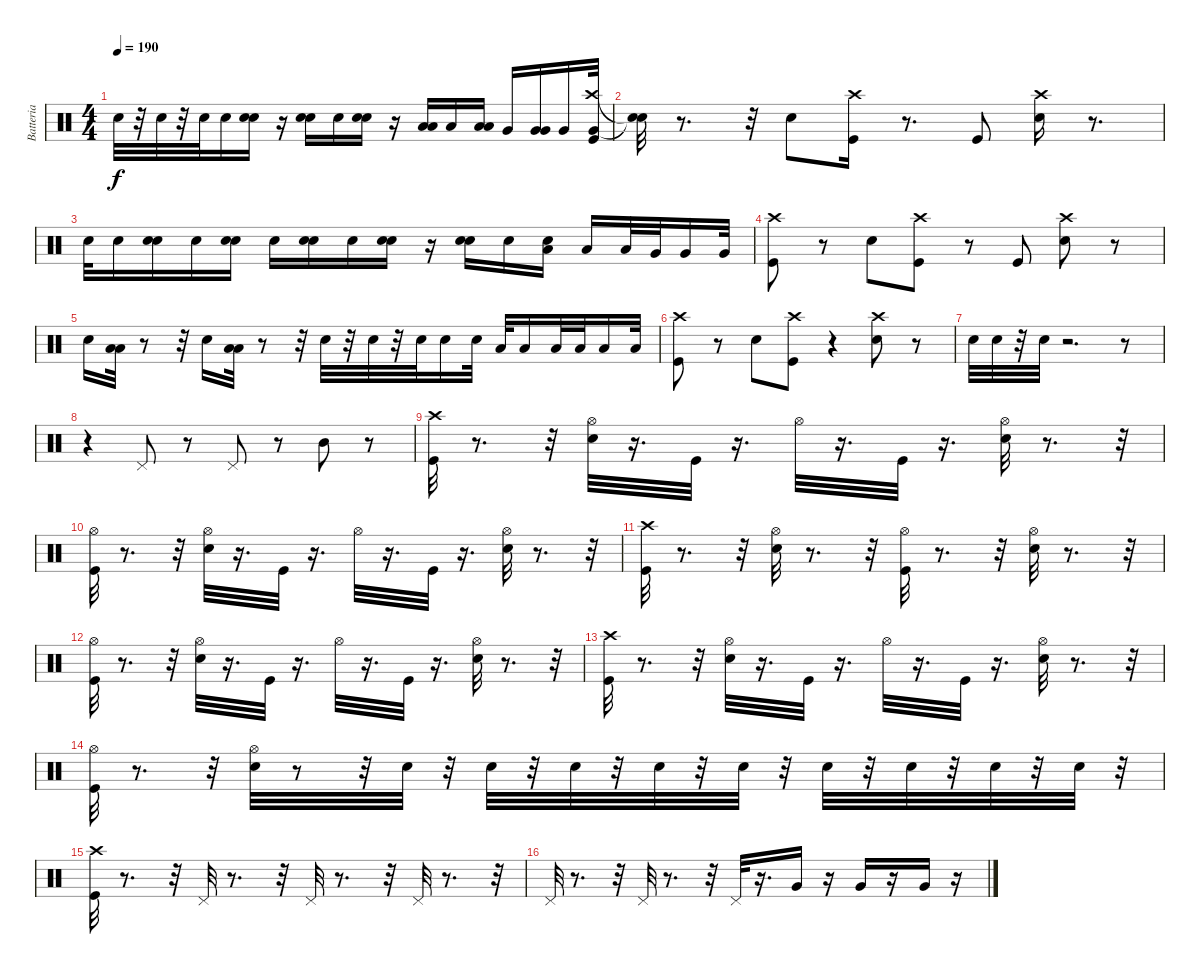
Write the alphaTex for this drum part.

\track ("Batteria" "Batteria") {instrument percussion}
\staff {score}
\articulation defaults
\ts (4 4)
\tempo 190
\clef neutral
\ks c "Snare (hit) 2".32{dy f}
r.32 "Snare (hit) 2".32 r.32 "Snare (hit) 2".32 "Snare (hit) 2".16 ("Snare (hit) 2" "Snare (hit) 2").16 r.16 ("Snare (hit) 2" "Snare (hit) 2").16 "Snare (hit) 2".16 ("Snare (hit) 2" "Snare (hit) 2").16 r.16 ("Low Tom (hit)" "Low Tom (hit)").16 "Low Tom (hit)".16 ("Low Tom (hit)" "Low Tom (hit)").16 "Very Low Tom (hit)".16 ("Very Low Tom (hit)" "Very Low Tom (hit)").16 "Very Low Tom (hit)".16 ("Very Low Tom (hit)" "Crash high (hit)" "Kick (hit)").32 |
("Snare (hit)"{t} "Snare (hit)"{t}).32 r.8{d} r.32 "Snare (hit) 2".8 ("Crash high (hit)" "Kick (hit)").16 r.8{d} "Kick (hit)".8 ("Crash high (hit)" "Snare (hit) 2").16 r.8{d} |
"Snare (hit) 2".32 "Snare (hit) 2".16 ("Snare (hit) 2" "Snare (hit) 2").16 "Snare (hit) 2".16 ("Snare (hit) 2" "Snare (hit) 2").16 "Snare (hit) 2".16 ("Snare (hit) 2" "Snare (hit) 2").16 "Snare (hit) 2".16 ("Snare (hit) 2" "Snare (hit) 2").16 r.16 ("Snare (hit) 2" "Snare (hit) 2").16 "Snare (hit) 2".16 ("Snare (hit) 2" "Low Tom (hit)").16 "Low Tom (hit)".16 "Low Tom (hit)".32 "Very Low Tom (hit)".32 "Very Low Tom (hit)".16 "Very Low Tom (hit)".32 |
("Crash high (hit)" "Kick (hit)").8 r.8 "Snare (hit) 2".8 ("Kick (hit)" "Crash high (hit)").8 r.8 "Kick (hit)".8 ("Snare (hit) 2" "Crash high (hit)").8 r.8 |
"Snare (hit) 2".16 ("Low Tom (hit)" "Low Tom (hit)").32 r.8 r.32 "Snare (hit) 2".16 ("Low Tom (hit)" "Low Tom (hit)").32 r.8 r.32 "Snare (hit) 2".32 r.32 "Snare (hit) 2".32 r.32 "Snare (hit) 2".32 "Snare (hit) 2".16 "Snare (hit) 2".32 "Low Tom (hit)".32 "Low Tom (hit)".16 "Low Tom (hit)".32 "Low Tom (hit)".32 "Low Tom (hit)".16 "Low Tom (hit)".32 |
("Kick (hit)" "Crash high (hit)").8 r.8 "Snare (hit) 2".8 ("Kick (hit)" "Crash high (hit)").8 r.4 ("Snare (hit) 2" "Crash high (hit)").8 r.8 |
"Snare (hit) 2".32 "Snare (hit) 2".32 r.32 "Snare (hit) 2".32 r.2{d} r.8 |
r.4 "Pedal Hi-Hat (hit)".8 r.8 "Pedal Hi-Hat (hit)".8 r.8 "Mid Tom (hit)".8 r.8 |
("Crash high (hit)" "Kick (hit)").32 r.8{d} r.32 ("Hi-Hat (open)" "Snare (hit) 2").32 r.16{d} "Kick (hit)".32 r.16{d} "Hi-Hat (open)".32 r.16{d} "Kick (hit)".32 r.16{d} ("Snare (hit) 2" "Hi-Hat (open)").32 r.8{d} r.32 |
("Kick (hit)" "Hi-Hat (open)").32 r.8{d} r.32 ("Snare (hit) 2" "Hi-Hat (open)").32 r.16{d} "Kick (hit)".32 r.16{d} "Hi-Hat (open)".32 r.16{d} "Kick (hit)".32 r.16{d} ("Hi-Hat (open)" "Snare (hit) 2").32 r.8{d} r.32 |
("Crash high (hit)" "Kick (hit)").32 r.8{d} r.32 ("Hi-Hat (open)" "Snare (hit) 2").32 r.8{d} r.32 ("Hi-Hat (open)" "Kick (hit)").32 r.8{d} r.32 ("Hi-Hat (open)" "Snare (hit) 2").32 r.8{d} r.32 |
("Hi-Hat (open)" "Kick (hit)").32 r.8{d} r.32 ("Snare (hit) 2" "Hi-Hat (open)").32 r.16{d} "Kick (hit)".32 r.16{d} "Hi-Hat (open)".32 r.16{d} "Kick (hit)".32 r.16{d} ("Snare (hit) 2" "Hi-Hat (open)").32 r.8{d} r.32 |
("Crash high (hit)" "Kick (hit)").32 r.8{d} r.32 ("Hi-Hat (open)" "Snare (hit) 2").32 r.16{d} "Kick (hit)".32 r.16{d} "Hi-Hat (open)".32 r.16{d} "Kick (hit)".32 r.16{d} ("Hi-Hat (open)" "Snare (hit) 2").32 r.8{d} r.32 |
("Hi-Hat (open)" "Kick (hit)").32 r.8{d} r.32 ("Hi-Hat (open)" "Snare (hit) 2").32 r.8 r.32 "Snare (hit) 2".32 r.32 "Snare (hit) 2".32 r.32 "Snare (hit) 2".32 r.32 "Snare (hit) 2".32 r.32 "Snare (hit) 2".32 r.32 "Snare (hit) 2".32 r.32 "Snare (hit) 2".32 r.32 "Snare (hit) 2".32 r.32 "Snare (hit) 2".32 r.32 |
("Crash high (hit)" "Kick (hit)").32 r.8{d} r.32 "Pedal Hi-Hat (hit)".32 r.8{d} r.32 "Pedal Hi-Hat (hit)".32 r.8{d} r.32 "Pedal Hi-Hat (hit)".32 r.8{d} r.32 |
"Pedal Hi-Hat (hit)".32 r.8{d} r.32 "Pedal Hi-Hat (hit)".32 r.8{d} r.32 "Pedal Hi-Hat (hit)".32 r.16{d} "Very Low Tom (hit)".16 r.16 "Very Low Tom (hit)".16 r.16 "Very Low Tom (hit)".16 r.16
